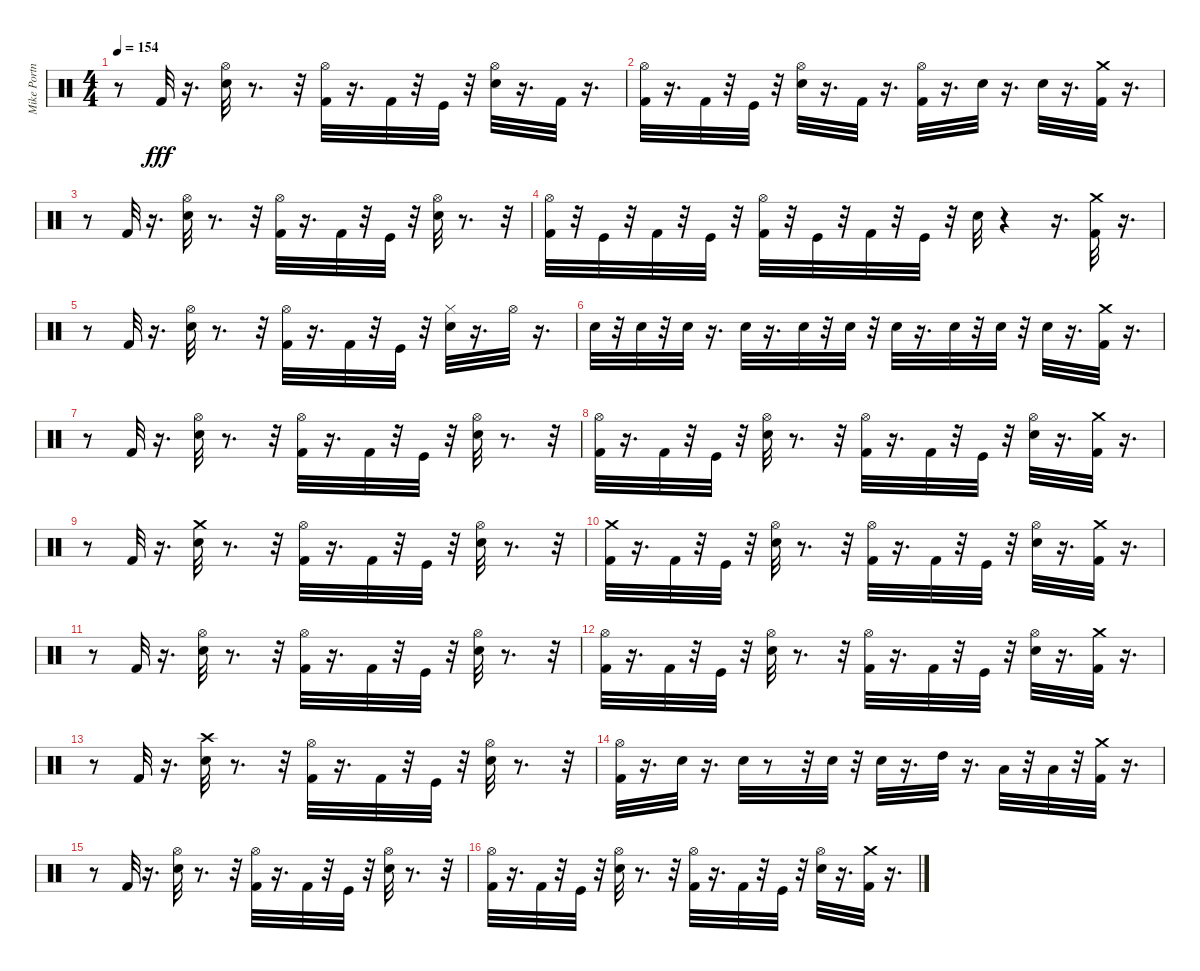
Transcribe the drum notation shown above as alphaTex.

\track ("Mike Portnoy" "Mike Portn") {instrument percussion}
\staff {score}
\articulation defaults
\ts (4 4)
\tempo 154
\clef neutral
\ks c
r.8{dy fff} "Kick (hit) 2".32 r.16{d} ("Snare (hit) 2" "Hi-Hat (open)").32 r.8{d} r.32 ("Kick (hit) 2" "Hi-Hat (open)").32 r.16{d} "Kick (hit) 2".32 r.32 "Kick (hit)".32 r.32 ("Snare (hit) 2" "Hi-Hat (open)").32 r.16{d} "Kick (hit) 2".32 r.16{d} |
("Kick (hit) 2" "Hi-Hat (open)").32 r.16{d} "Kick (hit) 2".32 r.32 "Kick (hit)".32 r.32 ("Snare (hit) 2" "Hi-Hat (open)").32 r.16{d} "Kick (hit) 2".32 r.16{d} ("Kick (hit) 2" "Hi-Hat (open)").32 r.16{d} "Snare (hit) 2".32 r.16{d} "Snare (hit) 2".32 r.16{d} ("Kick (hit) 2" "Crash medium (hit)").32 r.16{d} |
r.8 "Kick (hit) 2".32 r.16{d} ("Snare (hit) 2" "Hi-Hat (open)").32 r.8{d} r.32 ("Kick (hit) 2" "Hi-Hat (open)").32 r.16{d} "Kick (hit) 2".32 r.32 "Kick (hit)".32 r.32 ("Snare (hit) 2" "Hi-Hat (open)").32 r.8{d} r.32 |
("Kick (hit) 2" "Hi-Hat (open)").32 r.32 "Kick (hit)".32 r.32 "Kick (hit) 2".32 r.32 "Kick (hit)".32 r.32 ("Kick (hit) 2" "Hi-Hat (open)").32 r.32 "Kick (hit)".32 r.32 "Kick (hit) 2".32 r.32 "Kick (hit)".32 r.32 "Snare (hit) 2".32 r.4 r.16{d} ("Crash medium (hit)" "Kick (hit) 2").32 r.16{d} |
r.8 "Kick (hit) 2".32 r.16{d} ("Snare (hit) 2" "Hi-Hat (open)").32 r.8{d} r.32 ("Kick (hit) 2" "Hi-Hat (open)").32 r.16{d} "Kick (hit) 2".32 r.32 "Kick (hit)".32 r.32 ("Snare (hit) 2" "Hi-Hat (closed)").32 r.16{d} "Hi-Hat (open)".32 r.16{d} |
"Snare (hit) 2".32 r.32 "Snare (hit) 2".32 r.32 "Snare (hit) 2".32 r.16{d} "Snare (hit) 2".32 r.16{d} "Snare (hit) 2".32 r.32 "Snare (hit) 2".32 r.32 "Snare (hit) 2".32 r.16{d} "Snare (hit) 2".32 r.32 "Snare (hit) 2".32 r.32 "Snare (hit) 2".32 r.16{d} ("Crash medium (hit)" "Kick (hit) 2").32 r.16{d} |
r.8 "Kick (hit) 2".32 r.16{d} ("Snare (hit) 2" "Hi-Hat (open)").32 r.8{d} r.32 ("Kick (hit) 2" "Hi-Hat (open)").32 r.16{d} "Kick (hit) 2".32 r.32 "Kick (hit)".32 r.32 ("Snare (hit) 2" "Hi-Hat (open)").32 r.8{d} r.32 |
("Kick (hit) 2" "Hi-Hat (open)").32 r.16{d} "Kick (hit) 2".32 r.32 "Kick (hit)".32 r.32 ("Snare (hit) 2" "Hi-Hat (open)").32 r.8{d} r.32 ("Kick (hit) 2" "Hi-Hat (open)").32 r.16{d} "Kick (hit) 2".32 r.32 "Kick (hit)".32 r.32 ("Snare (hit) 2" "Hi-Hat (open)").32 r.16{d} ("Kick (hit) 2" "Crash medium (hit)").32 r.16{d} |
r.8 "Kick (hit) 2".32 r.16{d} ("Snare (hit) 2" "Crash medium (hit)").32 r.8{d} r.32 ("Kick (hit) 2" "Hi-Hat (open)").32 r.16{d} "Kick (hit) 2".32 r.32 "Kick (hit)".32 r.32 ("Snare (hit) 2" "Hi-Hat (open)").32 r.8{d} r.32 |
("Kick (hit) 2" "Crash medium (hit)").32 r.16{d} "Kick (hit) 2".32 r.32 "Kick (hit)".32 r.32 ("Snare (hit) 2" "Hi-Hat (open)").32 r.8{d} r.32 ("Kick (hit) 2" "Hi-Hat (open)").32 r.16{d} "Kick (hit) 2".32 r.32 "Kick (hit)".32 r.32 ("Snare (hit) 2" "Hi-Hat (open)").32 r.16{d} ("Kick (hit) 2" "Crash medium (hit)").32 r.16{d} |
r.8 "Kick (hit) 2".32 r.16{d} ("Snare (hit) 2" "Hi-Hat (open)").32 r.8{d} r.32 ("Kick (hit) 2" "Hi-Hat (open)").32 r.16{d} "Kick (hit) 2".32 r.32 "Kick (hit)".32 r.32 ("Snare (hit) 2" "Hi-Hat (open)").32 r.8{d} r.32 |
("Kick (hit) 2" "Hi-Hat (open)").32 r.16{d} "Kick (hit) 2".32 r.32 "Kick (hit)".32 r.32 ("Snare (hit) 2" "Hi-Hat (open)").32 r.8{d} r.32 ("Kick (hit) 2" "Hi-Hat (open)").32 r.16{d} "Kick (hit) 2".32 r.32 "Kick (hit)".32 r.32 ("Snare (hit) 2" "Hi-Hat (open)").32 r.16{d} ("Kick (hit) 2" "Crash medium (hit)").32 r.16{d} |
r.8 "Kick (hit) 2".32 r.16{d} ("Snare (hit) 2" "Crash high (hit)").32 r.8{d} r.32 ("Kick (hit) 2" "Hi-Hat (open)").32 r.16{d} "Kick (hit) 2".32 r.32 "Kick (hit)".32 r.32 ("Snare (hit) 2" "Hi-Hat (open)").32 r.8{d} r.32 |
("Kick (hit) 2" "Hi-Hat (open)").32 r.16{d} "Snare (hit) 2".32 r.16{d} "Snare (hit) 2".32 r.8 r.32 "Snare (hit) 2".32 r.32 "Snare (hit) 2".32 r.16{d} "High Tom (hit)".32 r.16{d} "Low Tom (hit)".32 r.32 "Low Tom (hit)".32 r.32 ("Crash medium (hit)" "Kick (hit) 2").32 r.16{d} |
r.8 "Kick (hit) 2".32 r.16{d} ("Snare (hit) 2" "Hi-Hat (open)").32 r.8{d} r.32 ("Kick (hit) 2" "Hi-Hat (open)").32 r.16{d} "Kick (hit) 2".32 r.32 "Kick (hit)".32 r.32 ("Snare (hit) 2" "Hi-Hat (open)").32 r.8{d} r.32 |
("Kick (hit) 2" "Hi-Hat (open)").32 r.16{d} "Kick (hit) 2".32 r.32 "Kick (hit)".32 r.32 ("Snare (hit) 2" "Hi-Hat (open)").32 r.8{d} r.32 ("Kick (hit) 2" "Hi-Hat (open)").32 r.16{d} "Kick (hit) 2".32 r.32 "Kick (hit)".32 r.32 ("Snare (hit) 2" "Hi-Hat (open)").32 r.16{d} ("Kick (hit) 2" "Crash medium (hit)").32 r.16{d}
